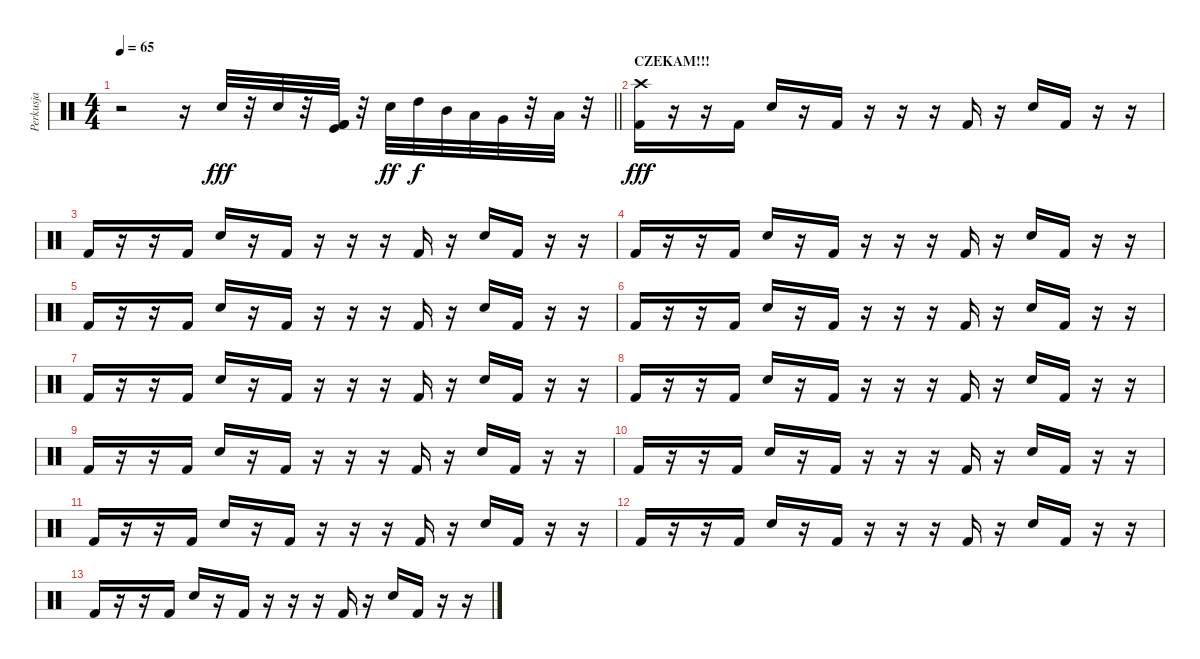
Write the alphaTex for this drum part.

\track ("Perkusja" "Perkusja") {instrument percussion}
\staff {score}
\articulation defaults
\ts (4 4)
\tempo 65
\clef neutral
\barLineRight lightlight
\ks c
r.2{dy f} r.16 "Snare (hit) 2".32{dy fff} r.32 "Snare (hit) 2".32 r.32 ("Kick (hit) 2" "Kick (hit)" "Kick (hit) 2").32 r.32 "Snare (hit) 2".32{dy ff} "High Tom (hit)".32{dy f} "Mid Tom (hit)".32 "Low Tom (hit)".32 "Very Low Tom (hit)".32 r.32 "Low Floor Tom (hit)".32 r.32 |
\section ("" "CZEKAM!!!")
("Crash high (hit)" "Kick (hit) 2").16{dy fff} r.16 r.16 "Kick (hit) 2".16 "Snare (hit) 2".16 r.16 "Kick (hit) 2".16 r.16 r.16 r.16 "Kick (hit) 2".16 r.16 "Snare (hit) 2".16 "Kick (hit) 2".16 r.16 r.16 |
"Kick (hit) 2".16 r.16 r.16 "Kick (hit) 2".16 "Snare (hit) 2".16 r.16 "Kick (hit) 2".16 r.16 r.16 r.16 "Kick (hit) 2".16 r.16 "Snare (hit) 2".16 "Kick (hit) 2".16 r.16 r.16 |
"Kick (hit) 2".16 r.16 r.16 "Kick (hit) 2".16 "Snare (hit) 2".16 r.16 "Kick (hit) 2".16 r.16 r.16 r.16 "Kick (hit) 2".16 r.16 "Snare (hit) 2".16 "Kick (hit) 2".16 r.16 r.16 |
"Kick (hit) 2".16 r.16 r.16 "Kick (hit) 2".16 "Snare (hit) 2".16 r.16 "Kick (hit) 2".16 r.16 r.16 r.16 "Kick (hit) 2".16 r.16 "Snare (hit) 2".16 "Kick (hit) 2".16 r.16 r.16 |
"Kick (hit) 2".16 r.16 r.16 "Kick (hit) 2".16 "Snare (hit) 2".16 r.16 "Kick (hit) 2".16 r.16 r.16 r.16 "Kick (hit) 2".16 r.16 "Snare (hit) 2".16 "Kick (hit) 2".16 r.16 r.16 |
"Kick (hit) 2".16 r.16 r.16 "Kick (hit) 2".16 "Snare (hit) 2".16 r.16 "Kick (hit) 2".16 r.16 r.16 r.16 "Kick (hit) 2".16 r.16 "Snare (hit) 2".16 "Kick (hit) 2".16 r.16 r.16 |
"Kick (hit) 2".16 r.16 r.16 "Kick (hit) 2".16 "Snare (hit) 2".16 r.16 "Kick (hit) 2".16 r.16 r.16 r.16 "Kick (hit) 2".16 r.16 "Snare (hit) 2".16 "Kick (hit) 2".16 r.16 r.16 |
"Kick (hit) 2".16 r.16 r.16 "Kick (hit) 2".16 "Snare (hit) 2".16 r.16 "Kick (hit) 2".16 r.16 r.16 r.16 "Kick (hit) 2".16 r.16 "Snare (hit) 2".16 "Kick (hit) 2".16 r.16 r.16 |
"Kick (hit) 2".16 r.16 r.16 "Kick (hit) 2".16 "Snare (hit) 2".16 r.16 "Kick (hit) 2".16 r.16 r.16 r.16 "Kick (hit) 2".16 r.16 "Snare (hit) 2".16 "Kick (hit) 2".16 r.16 r.16 |
"Kick (hit) 2".16 r.16 r.16 "Kick (hit) 2".16 "Snare (hit) 2".16 r.16 "Kick (hit) 2".16 r.16 r.16 r.16 "Kick (hit) 2".16 r.16 "Snare (hit) 2".16 "Kick (hit) 2".16 r.16 r.16 |
"Kick (hit) 2".16{volume 14} r.16 r.16 "Kick (hit) 2".16 "Snare (hit) 2".16 r.16 "Kick (hit) 2".16{volume 12} r.16 r.16 r.16 "Kick (hit) 2".16 r.16 "Snare (hit) 2".16{volume 11} "Kick (hit) 2".16 r.16{volume 10} r.16 |
"Kick (hit) 2".16{volume 8} r.16 r.16 "Kick (hit) 2".16 "Snare (hit) 2".16 r.16 "Kick (hit) 2".16{volume 6} r.16 r.16 r.16 "Kick (hit) 2".16 r.16 "Snare (hit) 2".16{volume 4} "Kick (hit) 2".16 r.16{volume 2} r.16
